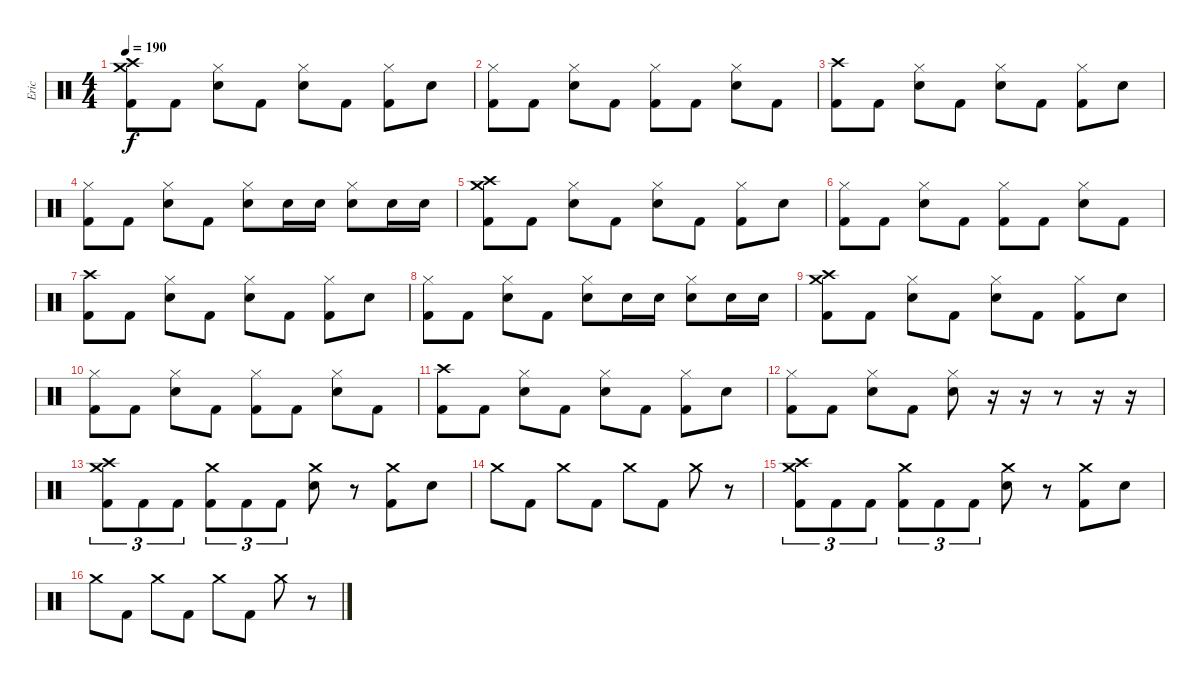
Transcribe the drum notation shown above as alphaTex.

\track ("Eric" "Eric") {instrument percussion}
\staff {score}
\articulation defaults
\ts (4 4)
\tempo 190
\clef neutral
\ks c
("Crash medium (hit)" "Crash high (hit)" "Kick (hit) 2").8{dy f} "Kick (hit) 2".8 ("Hi-Hat (closed)" "Electric Snare (hit)").8 "Kick (hit) 2".8 ("Hi-Hat (closed)" "Electric Snare (hit)").8 "Kick (hit) 2".8 ("Hi-Hat (closed)" "Kick (hit) 2").8 "Electric Snare (hit)".8 |
("Hi-Hat (closed)" "Kick (hit) 2").8 "Kick (hit) 2".8 ("Hi-Hat (closed)" "Electric Snare (hit)").8 "Kick (hit) 2".8 ("Hi-Hat (closed)" "Kick (hit) 2").8 "Kick (hit) 2".8 ("Hi-Hat (closed)" "Electric Snare (hit)").8 "Kick (hit) 2".8 |
("Crash high (hit)" "Kick (hit) 2").8 "Kick (hit) 2".8 ("Hi-Hat (closed)" "Electric Snare (hit)").8 "Kick (hit) 2".8 ("Hi-Hat (closed)" "Electric Snare (hit)").8 "Kick (hit) 2".8 ("Hi-Hat (closed)" "Kick (hit) 2").8 "Electric Snare (hit)".8 |
("Hi-Hat (closed)" "Kick (hit) 2").8 "Kick (hit) 2".8 ("Hi-Hat (closed)" "Electric Snare (hit)").8 "Kick (hit) 2".8 ("Hi-Hat (closed)" "Electric Snare (hit)").8 "Electric Snare (hit)".16 "Electric Snare (hit)".16 ("Hi-Hat (closed)" "Electric Snare (hit)").8 "Electric Snare (hit)".16 "Electric Snare (hit)".16 |
("Crash medium (hit)" "Crash high (hit)" "Kick (hit) 2").8 "Kick (hit) 2".8 ("Hi-Hat (closed)" "Electric Snare (hit)").8 "Kick (hit) 2".8 ("Hi-Hat (closed)" "Electric Snare (hit)").8 "Kick (hit) 2".8 ("Hi-Hat (closed)" "Kick (hit) 2").8 "Electric Snare (hit)".8 |
("Hi-Hat (closed)" "Kick (hit) 2").8 "Kick (hit) 2".8 ("Hi-Hat (closed)" "Electric Snare (hit)").8 "Kick (hit) 2".8 ("Hi-Hat (closed)" "Kick (hit) 2").8 "Kick (hit) 2".8 ("Hi-Hat (closed)" "Electric Snare (hit)").8 "Kick (hit) 2".8 |
("Crash high (hit)" "Kick (hit) 2").8 "Kick (hit) 2".8 ("Hi-Hat (closed)" "Electric Snare (hit)").8 "Kick (hit) 2".8 ("Hi-Hat (closed)" "Electric Snare (hit)").8 "Kick (hit) 2".8 ("Hi-Hat (closed)" "Kick (hit) 2").8 "Electric Snare (hit)".8 |
("Hi-Hat (closed)" "Kick (hit) 2").8 "Kick (hit) 2".8 ("Hi-Hat (closed)" "Electric Snare (hit)").8 "Kick (hit) 2".8 ("Hi-Hat (closed)" "Electric Snare (hit)").8 "Electric Snare (hit)".16 "Electric Snare (hit)".16 ("Hi-Hat (closed)" "Electric Snare (hit)").8 "Electric Snare (hit)".16 "Electric Snare (hit)".16 |
("Crash medium (hit)" "Crash high (hit)" "Kick (hit) 2").8 "Kick (hit) 2".8 ("Hi-Hat (closed)" "Electric Snare (hit)").8 "Kick (hit) 2".8 ("Hi-Hat (closed)" "Electric Snare (hit)").8 "Kick (hit) 2".8 ("Hi-Hat (closed)" "Kick (hit) 2").8 "Electric Snare (hit)".8 |
("Hi-Hat (closed)" "Kick (hit) 2").8 "Kick (hit) 2".8 ("Hi-Hat (closed)" "Electric Snare (hit)").8 "Kick (hit) 2".8 ("Hi-Hat (closed)" "Kick (hit) 2").8 "Kick (hit) 2".8 ("Hi-Hat (closed)" "Electric Snare (hit)").8 "Kick (hit) 2".8 |
("Crash high (hit)" "Kick (hit) 2").8 "Kick (hit) 2".8 ("Hi-Hat (closed)" "Electric Snare (hit)").8 "Kick (hit) 2".8 ("Hi-Hat (closed)" "Electric Snare (hit)").8 "Kick (hit) 2".8 ("Hi-Hat (closed)" "Kick (hit) 2").8 "Electric Snare (hit)".8 |
("Hi-Hat (closed)" "Kick (hit) 2").8 "Kick (hit) 2".8 ("Hi-Hat (closed)" "Electric Snare (hit)").8 "Kick (hit) 2".8 ("Hi-Hat (closed)" "Electric Snare (hit)").8 r.16 r.16 r.8 r.16 r.16 |
("Crash medium (hit)" "Crash high (hit)" "Kick (hit) 2").8{tu (3 2)} "Kick (hit) 2".8{tu (3 2)} "Kick (hit) 2".8{tu (3 2)} ("Crash medium (hit)" "Kick (hit) 2").8{tu (3 2)} "Kick (hit) 2".8{tu (3 2)} "Kick (hit) 2".8{tu (3 2)} ("Crash medium (hit)" "Electric Snare (hit)").8 r.8 ("Crash medium (hit)" "Kick (hit) 2").8 "Electric Snare (hit)".8 |
"Crash medium (hit)".8 "Kick (hit) 2".8 "Crash medium (hit)".8 "Kick (hit) 2".8 "Crash medium (hit)".8 "Kick (hit) 2".8 "Crash medium (hit)".8 r.8 |
("Crash medium (hit)" "Crash high (hit)" "Kick (hit) 2").8{tu (3 2)} "Kick (hit) 2".8{tu (3 2)} "Kick (hit) 2".8{tu (3 2)} ("Crash medium (hit)" "Kick (hit) 2").8{tu (3 2)} "Kick (hit) 2".8{tu (3 2)} "Kick (hit) 2".8{tu (3 2)} ("Crash medium (hit)" "Electric Snare (hit)").8 r.8 ("Crash medium (hit)" "Kick (hit) 2").8 "Electric Snare (hit)".8 |
"Crash medium (hit)".8 "Kick (hit) 2".8 "Crash medium (hit)".8 "Kick (hit) 2".8 "Crash medium (hit)".8 "Kick (hit) 2".8 "Crash medium (hit)".8 r.8
